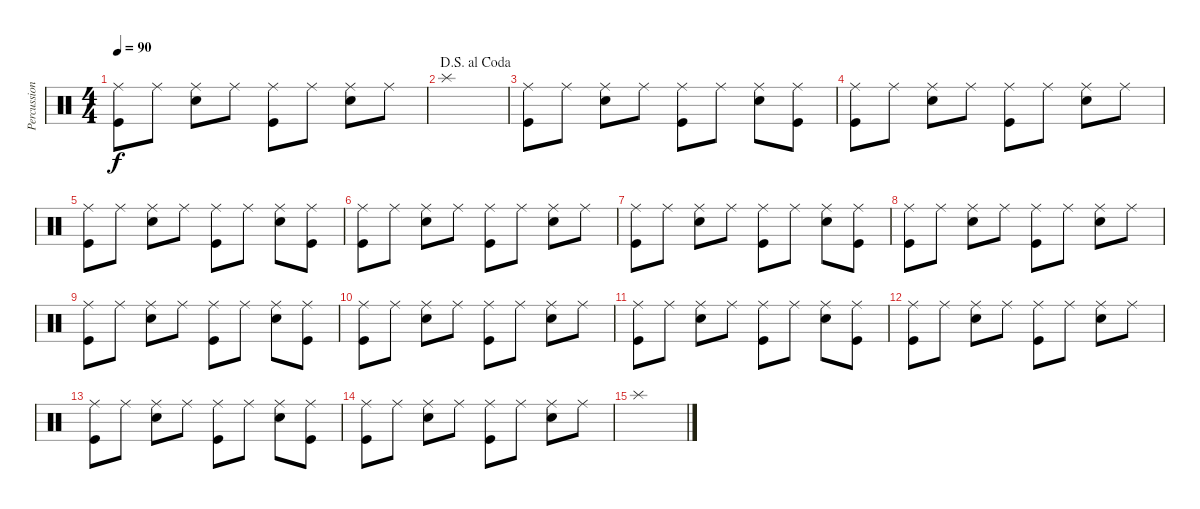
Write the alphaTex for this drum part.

\track ("Percussions" "Percussion") {instrument percussion}
\staff {score}
\articulation defaults
\ts (4 4)
\tempo 90
\clef neutral
\ks c
("Kick (hit)" "Ride (middle)").8{dy f} "Ride (middle)".8 ("Ride (middle)" "Snare (hit) 2").8 "Ride (middle)".8 ("Kick (hit)" "Ride (middle)").8 "Ride (middle)".8 ("Ride (middle)" "Snare (hit) 2").8 "Ride (middle)".8 |
\jump dalsegnoalcoda "Splash (hit)".1
|
("Kick (hit)" "Ride (middle)").8 "Ride (middle)".8 ("Ride (middle)" "Snare (hit) 2").8 "Ride (middle)".8 ("Kick (hit)" "Ride (middle)").8 "Ride (middle)".8 ("Ride (middle)" "Snare (hit) 2").8 ("Ride (middle)" "Kick (hit)").8 |
("Kick (hit)" "Ride (middle)").8 "Ride (middle)".8 ("Ride (middle)" "Snare (hit) 2").8 "Ride (middle)".8 ("Kick (hit)" "Ride (middle)").8 "Ride (middle)".8 ("Ride (middle)" "Snare (hit) 2").8 "Ride (middle)".8 |
("Kick (hit)" "Ride (middle)").8 "Ride (middle)".8 ("Ride (middle)" "Snare (hit) 2").8 "Ride (middle)".8 ("Kick (hit)" "Ride (middle)").8 "Ride (middle)".8 ("Ride (middle)" "Snare (hit) 2").8 ("Ride (middle)" "Kick (hit)").8 |
("Kick (hit)" "Ride (middle)").8 "Ride (middle)".8 ("Ride (middle)" "Snare (hit) 2").8 "Ride (middle)".8 ("Kick (hit)" "Ride (middle)").8 "Ride (middle)".8 ("Ride (middle)" "Snare (hit) 2").8 "Ride (middle)".8 |
("Kick (hit)" "Ride (middle)").8 "Ride (middle)".8 ("Ride (middle)" "Snare (hit) 2").8 "Ride (middle)".8 ("Kick (hit)" "Ride (middle)").8 "Ride (middle)".8 ("Ride (middle)" "Snare (hit) 2").8 ("Ride (middle)" "Kick (hit)").8 |
("Kick (hit)" "Ride (middle)").8 "Ride (middle)".8 ("Ride (middle)" "Snare (hit) 2").8 "Ride (middle)".8 ("Kick (hit)" "Ride (middle)").8 "Ride (middle)".8 ("Ride (middle)" "Snare (hit) 2").8 "Ride (middle)".8 |
("Kick (hit)" "Ride (middle)").8 "Ride (middle)".8 ("Ride (middle)" "Snare (hit) 2").8 "Ride (middle)".8 ("Kick (hit)" "Ride (middle)").8 "Ride (middle)".8 ("Ride (middle)" "Snare (hit) 2").8 ("Ride (middle)" "Kick (hit)").8 |
("Kick (hit)" "Ride (middle)").8 "Ride (middle)".8 ("Ride (middle)" "Snare (hit) 2").8 "Ride (middle)".8 ("Kick (hit)" "Ride (middle)").8 "Ride (middle)".8 ("Ride (middle)" "Snare (hit) 2").8 "Ride (middle)".8 |
("Kick (hit)" "Ride (middle)").8 "Ride (middle)".8 ("Ride (middle)" "Snare (hit) 2").8 "Ride (middle)".8 ("Kick (hit)" "Ride (middle)").8 "Ride (middle)".8 ("Ride (middle)" "Snare (hit) 2").8 ("Ride (middle)" "Kick (hit)").8 |
("Kick (hit)" "Ride (middle)").8 "Ride (middle)".8 ("Ride (middle)" "Snare (hit) 2").8 "Ride (middle)".8 ("Kick (hit)" "Ride (middle)").8 "Ride (middle)".8 ("Ride (middle)" "Snare (hit) 2").8 "Ride (middle)".8 |
("Kick (hit)" "Ride (middle)").8 "Ride (middle)".8 ("Ride (middle)" "Snare (hit) 2").8 "Ride (middle)".8 ("Kick (hit)" "Ride (middle)").8 "Ride (middle)".8 ("Ride (middle)" "Snare (hit) 2").8 ("Ride (middle)" "Kick (hit)").8 |
("Kick (hit)" "Ride (middle)").8 "Ride (middle)".8 ("Ride (middle)" "Snare (hit) 2").8 "Ride (middle)".8 ("Kick (hit)" "Ride (middle)").8 "Ride (middle)".8 ("Ride (middle)" "Snare (hit) 2").8 "Ride (middle)".8 |
"Splash (hit)".1
